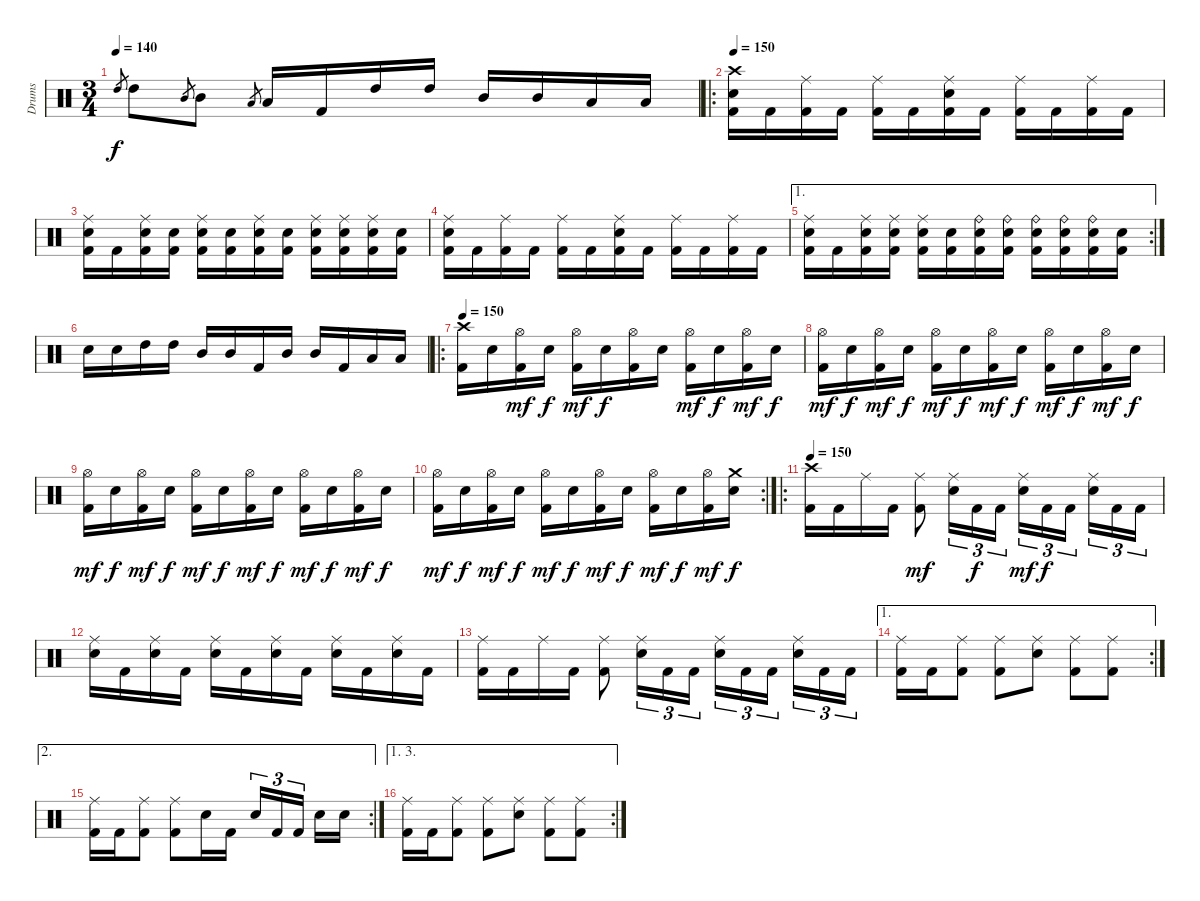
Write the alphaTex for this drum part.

\track ("Drums" "Drums") {instrument percussion}
\staff {score}
\articulation defaults
\ts (3 4)
\tempo 140
\clef neutral
\ks c "High Tom (hit)".8{gr dy f} "High Tom (hit)".8 "Mid Tom (hit)".8{gr} "Mid Tom (hit)".8 "Low Tom (hit)".8{gr} "Low Tom (hit)".16 "Kick (hit) 2".16 "High Tom (hit)".16 "High Tom (hit)".16 "Mid Tom (hit)".16 "Mid Tom (hit)".16 "Low Tom (hit)".16 "Low Tom (hit)".16
|
\ro
\tempo 150
("Crash high (hit)" "Electric Snare (hit)" "Kick (hit) 2").16 "Kick (hit) 2".16 ("Ride (middle)" "Kick (hit) 2").16 "Kick (hit) 2".16 ("Ride (middle)" "Kick (hit) 2").16 "Kick (hit) 2".16 ("Ride (middle)" "Electric Snare (hit)" "Kick (hit) 2").16 "Kick (hit) 2".16 ("Ride (middle)" "Kick (hit) 2").16 "Kick (hit) 2".16 ("Ride (middle)" "Kick (hit) 2").16 "Kick (hit) 2".16 |
("Ride (middle)" "Electric Snare (hit)" "Kick (hit) 2").16 "Kick (hit) 2".16 ("Ride (middle)" "Electric Snare (hit)" "Kick (hit) 2").16 ("Electric Snare (hit)" "Kick (hit) 2").16 ("Ride (middle)" "Electric Snare (hit)" "Kick (hit) 2").16 ("Electric Snare (hit)" "Kick (hit) 2").16 ("Ride (middle)" "Electric Snare (hit)" "Kick (hit) 2").16 ("Electric Snare (hit)" "Kick (hit) 2").16 ("Ride (middle)" "Electric Snare (hit)" "Kick (hit) 2").16 ("Ride (middle)" "Electric Snare (hit)" "Kick (hit) 2").16 ("Ride (middle)" "Electric Snare (hit)" "Kick (hit) 2").16 ("Electric Snare (hit)" "Kick (hit) 2").16 |
("Ride (middle)" "Electric Snare (hit)" "Kick (hit) 2").16 "Kick (hit) 2".16 ("Ride (middle)" "Kick (hit) 2").16 "Kick (hit) 2".16 ("Ride (middle)" "Kick (hit) 2").16 "Kick (hit) 2".16 ("Ride (middle)" "Electric Snare (hit)" "Kick (hit) 2").16 "Kick (hit) 2".16 ("Ride (middle)" "Kick (hit) 2").16 "Kick (hit) 2".16 ("Ride (middle)" "Kick (hit) 2").16 "Kick (hit) 2".16 |
\ae 1
\rc 2
("Ride (middle)" "Electric Snare (hit)" "Kick (hit) 2").16 "Kick (hit) 2".16 ("Ride (middle)" "Electric Snare (hit)" "Kick (hit) 2").16 ("Ride (middle)" "Electric Snare (hit)" "Kick (hit) 2").16 ("Ride (middle)" "Electric Snare (hit)" "Kick (hit) 2").16 ("Electric Snare (hit)" "Kick (hit) 2").16 ("Ride (bell)" "Electric Snare (hit)" "Kick (hit) 2").16 ("Ride (bell)" "Electric Snare (hit)" "Kick (hit) 2").16 ("Ride (bell)" "Electric Snare (hit)" "Kick (hit) 2").16 ("Ride (bell)" "Electric Snare (hit)" "Kick (hit) 2").16 ("Ride (bell)" "Electric Snare (hit)" "Kick (hit) 2").16 ("Electric Snare (hit)" "Kick (hit) 2").16 |
"Electric Snare (hit)".16 "Electric Snare (hit)".16 "High Tom (hit)".16 "High Tom (hit)".16 "Mid Tom (hit)".16 "Mid Tom (hit)".16 "Kick (hit) 2".16 "Mid Tom (hit)".16 "Mid Tom (hit)".16 "Kick (hit) 2".16 "Low Tom (hit)".16 "Low Tom (hit)".16 |
\ro
\tempo 150
("Crash high (hit)" "Kick (hit) 2").16 "Electric Snare (hit)".16 ("Hi-Hat (open)" "Kick (hit) 2").16{dy mf} "Electric Snare (hit)".16{dy f} ("Hi-Hat (open)" "Kick (hit) 2").16{dy mf} "Electric Snare (hit)".16{dy f} ("Hi-Hat (open)" "Kick (hit) 2").16 "Electric Snare (hit)".16 ("Hi-Hat (open)" "Kick (hit) 2").16{dy mf} "Electric Snare (hit)".16{dy f} ("Hi-Hat (open)" "Kick (hit) 2").16{dy mf} "Electric Snare (hit)".16{dy f} |
("Hi-Hat (open)" "Kick (hit) 2").16{dy mf} "Electric Snare (hit)".16{dy f} ("Hi-Hat (open)" "Kick (hit) 2").16{dy mf} "Electric Snare (hit)".16{dy f} ("Hi-Hat (open)" "Kick (hit) 2").16{dy mf} "Electric Snare (hit)".16{dy f} ("Hi-Hat (open)" "Kick (hit) 2").16{dy mf} "Electric Snare (hit)".16{dy f} ("Hi-Hat (open)" "Kick (hit) 2").16{dy mf} "Electric Snare (hit)".16{dy f} ("Hi-Hat (open)" "Kick (hit) 2").16{dy mf} "Electric Snare (hit)".16{dy f} |
("Hi-Hat (open)" "Kick (hit) 2").16{dy mf} "Electric Snare (hit)".16{dy f} ("Hi-Hat (open)" "Kick (hit) 2").16{dy mf} "Electric Snare (hit)".16{dy f} ("Hi-Hat (open)" "Kick (hit) 2").16{dy mf} "Electric Snare (hit)".16{dy f} ("Hi-Hat (open)" "Kick (hit) 2").16{dy mf} "Electric Snare (hit)".16{dy f} ("Hi-Hat (open)" "Kick (hit) 2").16{dy mf} "Electric Snare (hit)".16{dy f} ("Hi-Hat (open)" "Kick (hit) 2").16{dy mf} "Electric Snare (hit)".16{dy f} |
\rc 2
("Hi-Hat (open)" "Kick (hit) 2").16{dy mf} "Electric Snare (hit)".16{dy f} ("Hi-Hat (open)" "Kick (hit) 2").16{dy mf} "Electric Snare (hit)".16{dy f} ("Hi-Hat (open)" "Kick (hit) 2").16{dy mf} "Electric Snare (hit)".16{dy f} ("Hi-Hat (open)" "Kick (hit) 2").16{dy mf} "Electric Snare (hit)".16{dy f} ("Hi-Hat (open)" "Kick (hit) 2").16{dy mf} "Electric Snare (hit)".16{dy f} ("Hi-Hat (open)" "Kick (hit) 2").16{dy mf} ("Crash medium (hit)" "Electric Snare (hit)").16{dy f} |
\ro
\tempo 150
("Crash high (hit)" "Kick (hit) 2").16 "Kick (hit) 2".16 "Ride (middle)".16 "Kick (hit) 2".16 ("Ride (middle)" "Kick (hit) 2").8{dy mf} ("Ride (middle)" "Electric Snare (hit)").16{tu (3 2)} "Kick (hit) 2".16{tu (3 2) dy f} "Kick (hit) 2".16{tu (3 2)} ("Ride (middle)" "Electric Snare (hit)").16{tu (3 2) dy mf} "Kick (hit) 2".16{tu (3 2) dy f} "Kick (hit) 2".16{tu (3 2)} ("Ride (middle)" "Electric Snare (hit)").16{tu (3 2)} "Kick (hit) 2".16{tu (3 2)} "Kick (hit) 2".16{tu (3 2)} |
("Ride (middle)" "Electric Snare (hit)").16 "Kick (hit) 2".16 ("Ride (middle)" "Electric Snare (hit)").16 "Kick (hit) 2".16 ("Ride (middle)" "Electric Snare (hit)").16 "Kick (hit) 2".16 ("Ride (middle)" "Electric Snare (hit)").16 "Kick (hit) 2".16 ("Ride (middle)" "Electric Snare (hit)").16 "Kick (hit) 2".16 ("Ride (middle)" "Electric Snare (hit)").16 "Kick (hit) 2".16 |
("Ride (middle)" "Kick (hit) 2").16 "Kick (hit) 2".16 "Ride (middle)".16 "Kick (hit) 2".16 ("Ride (middle)" "Kick (hit) 2").8 ("Ride (middle)" "Electric Snare (hit)").16{tu (3 2)} "Kick (hit) 2".16{tu (3 2)} "Kick (hit) 2".16{tu (3 2)} ("Ride (middle)" "Electric Snare (hit)").16{tu (3 2)} "Kick (hit) 2".16{tu (3 2)} "Kick (hit) 2".16{tu (3 2)} ("Ride (middle)" "Electric Snare (hit)").16{tu (3 2)} "Kick (hit) 2".16{tu (3 2)} "Kick (hit) 2".16{tu (3 2)} |
\ae 1
\rc 2
("Ride (middle)" "Kick (hit) 2").16 "Kick (hit) 2".16 ("Ride (middle)" "Kick (hit) 2").8 ("Ride (middle)" "Kick (hit) 2").8 ("Ride (middle)" "Electric Snare (hit)").8 ("Ride (middle)" "Kick (hit) 2").8 ("Ride (middle)" "Kick (hit) 2").8 |
\ae 2
\rc 2
("Ride (middle)" "Kick (hit) 2").16 "Kick (hit) 2".16 ("Ride (middle)" "Kick (hit) 2").8 ("Ride (middle)" "Kick (hit) 2").8 "Electric Snare (hit)".16 "Kick (hit) 2".16 "Electric Snare (hit)".16{tu (3 2)} "Kick (hit) 2".16{tu (3 2)} "Kick (hit) 2".16{tu (3 2)} "Electric Snare (hit)".16 "Electric Snare (hit)".16 |
\ae (1 3)
\rc 2
("Ride (middle)" "Kick (hit) 2").16 "Kick (hit) 2".16 ("Ride (middle)" "Kick (hit) 2").8 ("Ride (middle)" "Kick (hit) 2").8 ("Ride (middle)" "Electric Snare (hit)").8 ("Ride (middle)" "Kick (hit) 2").8 ("Ride (middle)" "Kick (hit) 2").8
